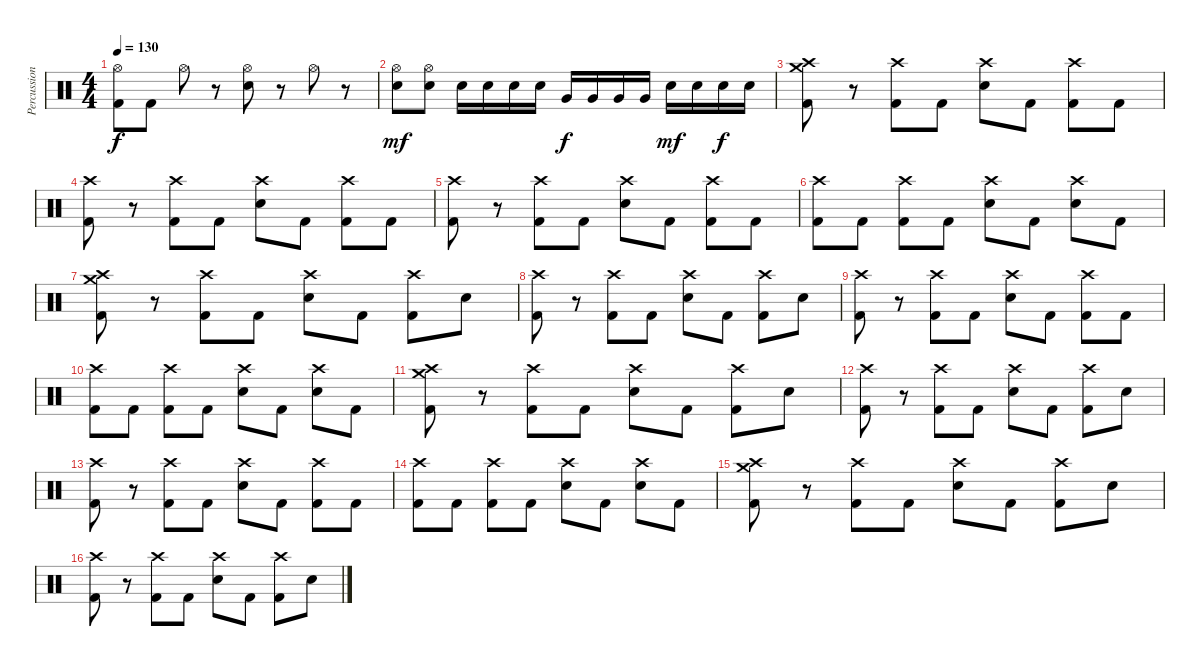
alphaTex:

\track ("Percussions" "Percussion") {instrument percussion}
\staff {score}
\articulation defaults
\ts (4 4)
\tempo 130
\clef neutral
\ks c
("Kick (hit) 2" "Hi-Hat (open)").8{dy f} "Kick (hit) 2".8 "Hi-Hat (open)".8 r.8 ("Electric Snare (hit)" "Hi-Hat (open)").8 r.8 "Hi-Hat (open)".8 r.8 |
("Electric Snare (hit)" "Hi-Hat (open)").8{dy mf} ("Electric Snare (hit)" "Hi-Hat (open)").8 "Electric Snare (hit)".16 "Electric Snare (hit)".16 "Electric Snare (hit)".16 "Electric Snare (hit)".16 "Very Low Tom (hit)".16{dy f} "Very Low Tom (hit)".16 "Very Low Tom (hit)".16 "Very Low Tom (hit)".16 "Electric Snare (hit)".16{dy mf} "Electric Snare (hit)".16 "Electric Snare (hit)".16{dy f} "Electric Snare (hit)".16 |
("Kick (hit) 2" "Crash medium (hit)" "Crash high (hit)").8 r.8 ("Kick (hit) 2" "Crash high (hit)").8 "Kick (hit) 2".8 ("Electric Snare (hit)" "Crash high (hit)").8 "Kick (hit) 2".8 ("Kick (hit) 2" "Crash high (hit)").8 "Kick (hit) 2".8 |
("Kick (hit) 2" "Crash high (hit)").8 r.8 ("Kick (hit) 2" "Crash high (hit)").8 "Kick (hit) 2".8 ("Electric Snare (hit)" "Crash high (hit)").8 "Kick (hit) 2".8 ("Kick (hit) 2" "Crash high (hit)").8 "Kick (hit) 2".8 |
("Kick (hit) 2" "Crash high (hit)").8 r.8 ("Kick (hit) 2" "Crash high (hit)").8 "Kick (hit) 2".8 ("Electric Snare (hit)" "Crash high (hit)").8 "Kick (hit) 2".8 ("Kick (hit) 2" "Crash high (hit)").8 "Kick (hit) 2".8 |
("Kick (hit) 2" "Crash high (hit)").8 "Kick (hit) 2".8 ("Kick (hit) 2" "Crash high (hit)").8 "Kick (hit) 2".8 ("Electric Snare (hit)" "Crash high (hit)").8 "Kick (hit) 2".8 ("Electric Snare (hit)" "Crash high (hit)").8 "Kick (hit) 2".8 |
("Kick (hit) 2" "Crash medium (hit)" "Crash high (hit)").8 r.8 ("Kick (hit) 2" "Crash high (hit)").8 "Kick (hit) 2".8 ("Electric Snare (hit)" "Crash high (hit)").8 "Kick (hit) 2".8 ("Kick (hit) 2" "Crash high (hit)").8 "Electric Snare (hit)".8 |
("Kick (hit) 2" "Crash high (hit)").8 r.8 ("Kick (hit) 2" "Crash high (hit)").8 "Kick (hit) 2".8 ("Electric Snare (hit)" "Crash high (hit)").8 "Kick (hit) 2".8 ("Kick (hit) 2" "Crash high (hit)").8 "Electric Snare (hit)".8 |
("Kick (hit) 2" "Crash high (hit)").8 r.8 ("Kick (hit) 2" "Crash high (hit)").8 "Kick (hit) 2".8 ("Electric Snare (hit)" "Crash high (hit)").8 "Kick (hit) 2".8 ("Kick (hit) 2" "Crash high (hit)").8 "Kick (hit) 2".8 |
("Kick (hit) 2" "Crash high (hit)").8 "Kick (hit) 2".8 ("Kick (hit) 2" "Crash high (hit)").8 "Kick (hit) 2".8 ("Electric Snare (hit)" "Crash high (hit)").8 "Kick (hit) 2".8 ("Electric Snare (hit)" "Crash high (hit)").8 "Kick (hit) 2".8 |
("Kick (hit) 2" "Crash medium (hit)" "Crash high (hit)").8 r.8 ("Kick (hit) 2" "Crash high (hit)").8 "Kick (hit) 2".8 ("Electric Snare (hit)" "Crash high (hit)").8 "Kick (hit) 2".8 ("Kick (hit) 2" "Crash high (hit)").8 "Electric Snare (hit)".8 |
("Kick (hit) 2" "Crash high (hit)").8 r.8 ("Kick (hit) 2" "Crash high (hit)").8 "Kick (hit) 2".8 ("Electric Snare (hit)" "Crash high (hit)").8 "Kick (hit) 2".8 ("Kick (hit) 2" "Crash high (hit)").8 "Electric Snare (hit)".8 |
("Kick (hit) 2" "Crash high (hit)").8 r.8 ("Kick (hit) 2" "Crash high (hit)").8 "Kick (hit) 2".8 ("Electric Snare (hit)" "Crash high (hit)").8 "Kick (hit) 2".8 ("Kick (hit) 2" "Crash high (hit)").8 "Kick (hit) 2".8 |
("Kick (hit) 2" "Crash high (hit)").8 "Kick (hit) 2".8 ("Kick (hit) 2" "Crash high (hit)").8 "Kick (hit) 2".8 ("Electric Snare (hit)" "Crash high (hit)").8 "Kick (hit) 2".8 ("Electric Snare (hit)" "Crash high (hit)").8 "Kick (hit) 2".8 |
("Kick (hit) 2" "Crash medium (hit)" "Crash high (hit)").8 r.8 ("Kick (hit) 2" "Crash high (hit)").8 "Kick (hit) 2".8 ("Electric Snare (hit)" "Crash high (hit)").8 "Kick (hit) 2".8 ("Kick (hit) 2" "Crash high (hit)").8 "Electric Snare (hit)".8 |
("Kick (hit) 2" "Crash high (hit)").8 r.8 ("Kick (hit) 2" "Crash high (hit)").8 "Kick (hit) 2".8 ("Electric Snare (hit)" "Crash high (hit)").8 "Kick (hit) 2".8 ("Kick (hit) 2" "Crash high (hit)").8 "Electric Snare (hit)".8
